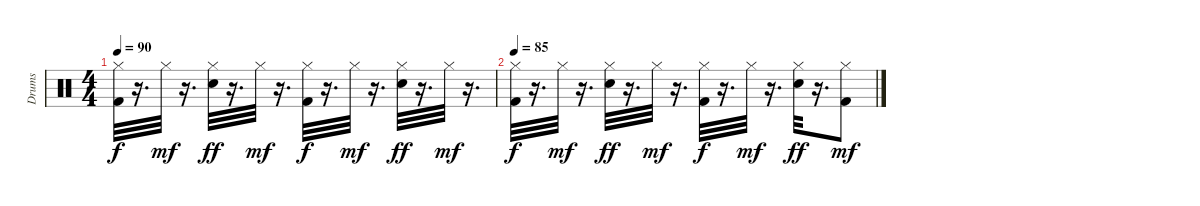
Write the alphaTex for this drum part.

\track ("Drums" "Drums") {instrument percussion}
\staff {score}
\articulation defaults
\ts (4 4)
\tempo 90
\clef neutral
\ks c
("Kick (hit) 2" "Hi-Hat (closed)").32{dy f volume 3} r.16{d} "Hi-Hat (closed)".32{dy mf volume 2} r.16{d} ("Snare (hit) 2" "Hi-Hat (closed)").32{dy ff volume 2} r.16{d} "Hi-Hat (closed)".32{dy mf volume 2} r.16{d} ("Kick (hit) 2" "Hi-Hat (closed)").32{dy f volume 2} r.16{d} "Hi-Hat (closed)".32{dy mf volume 2} r.16{d} ("Snare (hit) 2" "Hi-Hat (closed)").32{dy ff volume 2} r.16{d} "Hi-Hat (closed)".32{dy mf volume 2} r.16{d} |
\tempo 85
("Kick (hit) 2" "Hi-Hat (closed)").32{dy f volume 1} r.16{d} "Hi-Hat (closed)".32{dy mf volume 1} r.16{d} ("Snare (hit) 2" "Hi-Hat (closed)").32{dy ff volume 1} r.16{d} "Hi-Hat (closed)".32{dy mf volume 1} r.16{d} ("Kick (hit) 2" "Hi-Hat (closed)").32{dy f volume 1} r.16{d} "Hi-Hat (closed)".32{dy mf volume 0} r.16{d} ("Snare (hit) 2" "Hi-Hat (closed)").32{dy ff volume 0} r.16{d} ("Kick (hit) 2" "Hi-Hat (closed)").8{dy mf volume 0}
